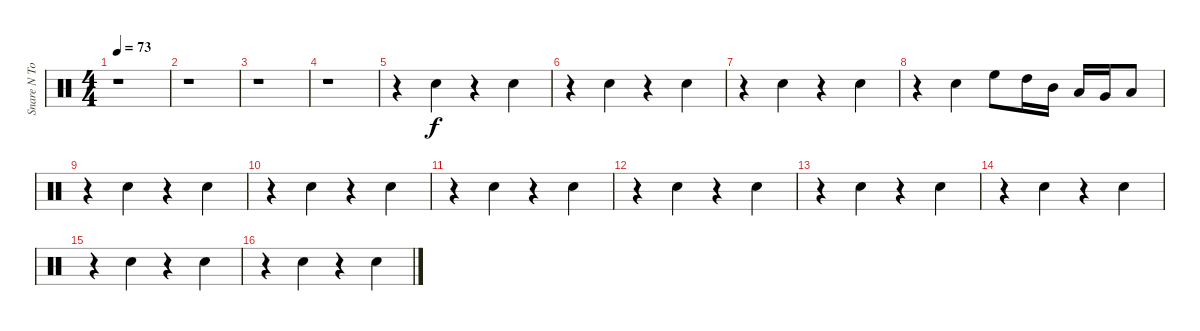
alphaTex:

\track ("Snare N Toms" "Snare N To") {instrument percussion}
\staff {score}
\articulation defaults
\ts (4 4)
\tempo 73
\clef neutral
\ks c
r.1{dy f} |
r.1 |
r.1 |
r.1 |
r.4 "Snare (hit) 2".4 r.4 "Snare (hit) 2".4 |
r.4 "Snare (hit) 2".4 r.4 "Snare (hit) 2".4 |
r.4 "Snare (hit) 2".4 r.4 "Snare (hit) 2".4 |
r.4 "Snare (hit) 2".4 "High Floor Tom (hit)".8 "High Tom (hit)".16 "Mid Tom (hit)".16 "Low Tom (hit)".16 "Very Low Tom (hit)".16 "Low Floor Tom (hit)".8 |
r.4 "Snare (hit) 2".4 r.4 "Snare (hit) 2".4 |
r.4 "Snare (hit) 2".4 r.4 "Snare (hit) 2".4 |
r.4 "Snare (hit) 2".4 r.4 "Snare (hit) 2".4 |
r.4 "Snare (hit) 2".4 r.4 "Snare (hit) 2".4 |
r.4 "Snare (hit) 2".4 r.4 "Snare (hit) 2".4 |
r.4 "Snare (hit) 2".4 r.4 "Snare (hit) 2".4 |
r.4 "Snare (hit) 2".4 r.4 "Snare (hit) 2".4 |
r.4 "Snare (hit) 2".4 r.4 "Snare (hit) 2".4
